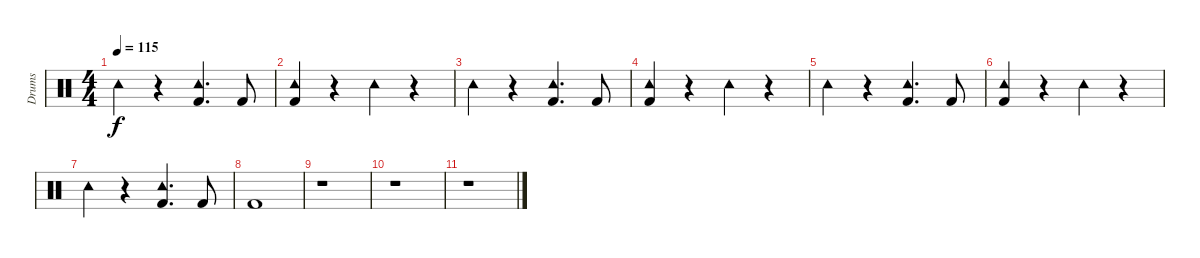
\track ("Drums" "Drums") {instrument percussion}
\staff {score}
\articulation defaults
\ts (4 4)
\tempo 115
\clef neutral
\ks c "Tambourine (hit)".4{dy f}
r.4 ("Tambourine (hit)" "Kick (hit) 2").4{d} "Kick (hit) 2".8 |
("Tambourine (hit)" "Kick (hit) 2").4 r.4 "Tambourine (hit)".4 r.4 |
"Tambourine (hit)".4 r.4 ("Tambourine (hit)" "Kick (hit) 2").4{d} "Kick (hit) 2".8 |
("Tambourine (hit)" "Kick (hit) 2").4 r.4 "Tambourine (hit)".4 r.4 |
"Tambourine (hit)".4 r.4 ("Tambourine (hit)" "Kick (hit) 2").4{d} "Kick (hit) 2".8 |
("Tambourine (hit)" "Kick (hit) 2").4 r.4 "Tambourine (hit)".4 r.4 |
"Tambourine (hit)".4 r.4 ("Tambourine (hit)" "Kick (hit) 2").4{d} "Kick (hit) 2".8 |
"Kick (hit) 2".1 |
r.1 |
r.1 |
r.1
